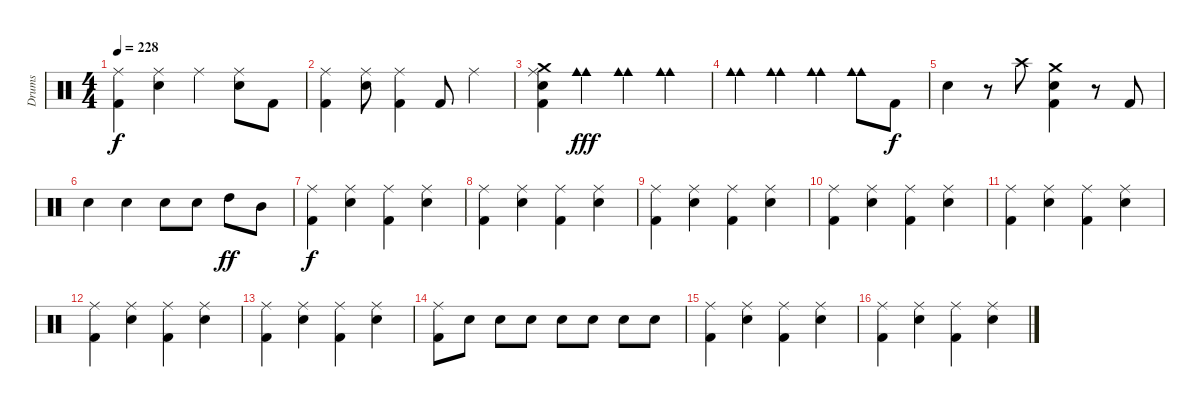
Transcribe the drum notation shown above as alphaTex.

\track ("Drums" "Drums") {instrument percussion}
\staff {score}
\articulation defaults
\ts (4 4)
\tempo 228
\clef neutral
\ks c
("Ride (middle)" "Kick (hit) 2").4{dy f} ("Ride (middle)" "Electric Snare (hit)").4 "Ride (middle)".4 ("Ride (middle)" "Electric Snare (hit)").8 "Kick (hit) 2".8 |
("Ride (middle)" "Kick (hit) 2").4 ("Ride (middle)" "Electric Snare (hit)").8 ("Ride (middle)" "Kick (hit) 2").4 "Kick (hit) 2".8 "Ride (middle)".4 |
("Crash medium (hit)" "Ride (middle)" "Electric Snare (hit)" "Kick (hit) 2").4 ("Cowbell medium (hit)" "Cowbell medium (hit)").4{dy fff} ("Cowbell medium (hit)" "Cowbell medium (hit)").4 ("Cowbell medium (hit)" "Cowbell medium (hit)").4 |
("Cowbell medium (hit)" "Cowbell medium (hit)").4 ("Cowbell medium (hit)" "Cowbell medium (hit)").4 ("Cowbell medium (hit)" "Cowbell medium (hit)").4 ("Cowbell medium (hit)" "Cowbell medium (hit)").8 "Kick (hit) 2".8{dy f} |
"Electric Snare (hit)".4 r.8 "Crash high (hit)".8 ("Crash medium (hit)" "Electric Snare (hit)" "Kick (hit) 2").4 r.8 "Kick (hit) 2".8 |
"Electric Snare (hit)".4 "Electric Snare (hit)".4 "Electric Snare (hit)".8 "Electric Snare (hit)".8 "High Tom (hit)".8{dy ff} "Mid Tom (hit)".8 |
("Ride (middle)" "Kick (hit) 2").4{dy f} ("Ride (middle)" "Electric Snare (hit)").4 ("Ride (middle)" "Kick (hit) 2").4 ("Ride (middle)" "Electric Snare (hit)").4 |
("Ride (middle)" "Kick (hit) 2").4 ("Ride (middle)" "Electric Snare (hit)").4 ("Ride (middle)" "Kick (hit) 2").4 ("Ride (middle)" "Electric Snare (hit)").4 |
("Ride (middle)" "Kick (hit) 2").4 ("Ride (middle)" "Electric Snare (hit)").4 ("Ride (middle)" "Kick (hit) 2").4 ("Ride (middle)" "Electric Snare (hit)").4 |
("Ride (middle)" "Kick (hit) 2").4 ("Ride (middle)" "Electric Snare (hit)").4 ("Ride (middle)" "Kick (hit) 2").4 ("Ride (middle)" "Electric Snare (hit)").4 |
("Ride (middle)" "Kick (hit) 2").4 ("Ride (middle)" "Electric Snare (hit)").4 ("Ride (middle)" "Kick (hit) 2").4 ("Ride (middle)" "Electric Snare (hit)").4 |
("Ride (middle)" "Kick (hit) 2").4 ("Ride (middle)" "Electric Snare (hit)").4 ("Ride (middle)" "Kick (hit) 2").4 ("Ride (middle)" "Electric Snare (hit)").4 |
("Ride (middle)" "Kick (hit) 2").4 ("Ride (middle)" "Electric Snare (hit)").4 ("Ride (middle)" "Kick (hit) 2").4 ("Ride (middle)" "Electric Snare (hit)").4 |
("Ride (middle)" "Kick (hit) 2").8 "Electric Snare (hit)".8 "Electric Snare (hit)".8 "Electric Snare (hit)".8 "Electric Snare (hit)".8 "Electric Snare (hit)".8 "Electric Snare (hit)".8 "Electric Snare (hit)".8 |
("Ride (middle)" "Kick (hit) 2").4 ("Ride (middle)" "Electric Snare (hit)").4 ("Ride (middle)" "Kick (hit) 2").4 ("Ride (middle)" "Electric Snare (hit)").4 |
("Ride (middle)" "Kick (hit) 2").4 ("Ride (middle)" "Electric Snare (hit)").4 ("Ride (middle)" "Kick (hit) 2").4 ("Ride (middle)" "Electric Snare (hit)").4
